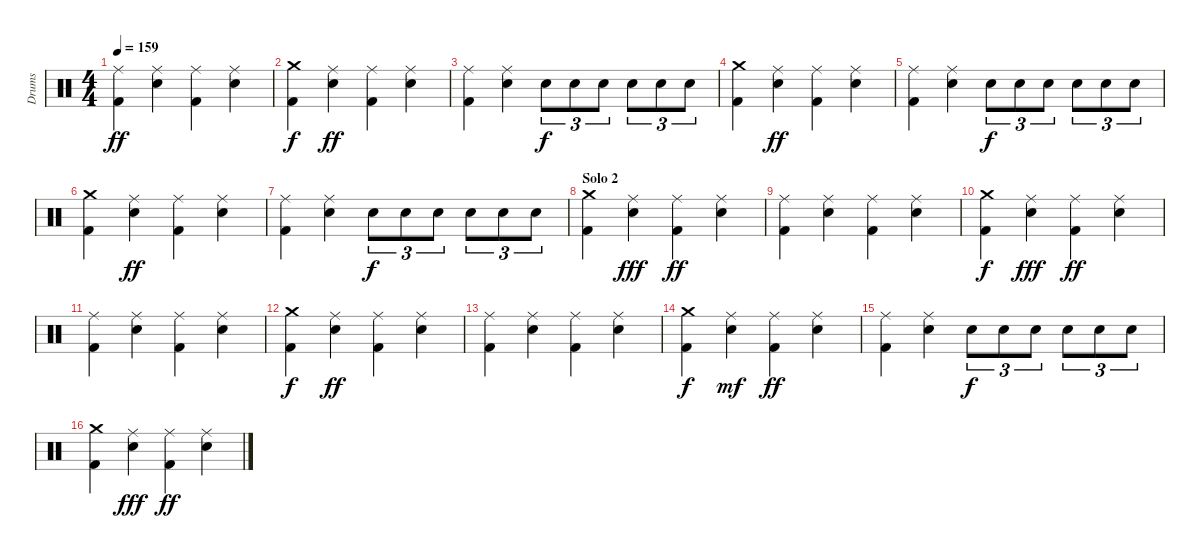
\track ("Drums" "Drums") {instrument percussion}
\staff {score}
\articulation defaults
\ts (4 4)
\tempo 159
\clef neutral
\ks c
("Ride (middle)" "Kick (hit) 2").4{dy ff} ("Ride (middle)" "Snare (hit) 2").4 ("Ride (middle)" "Kick (hit) 2").4 ("Ride (middle)" "Snare (hit) 2").4 |
("Crash medium (hit)" "Kick (hit) 2").4{dy f} ("Ride (middle)" "Snare (hit) 2").4{dy ff} ("Ride (middle)" "Kick (hit) 2").4 ("Ride (middle)" "Snare (hit) 2").4 |
("Ride (middle)" "Kick (hit) 2").4 ("Ride (middle)" "Snare (hit) 2").4 "Snare (hit) 2".8{tu (3 2) dy f} "Snare (hit) 2".8{tu (3 2)} "Snare (hit) 2".8{tu (3 2)} "Snare (hit) 2".8{tu (3 2)} "Snare (hit) 2".8{tu (3 2)} "Snare (hit) 2".8{tu (3 2)} |
("Crash medium (hit)" "Kick (hit) 2").4 ("Ride (middle)" "Snare (hit) 2").4{dy ff} ("Ride (middle)" "Kick (hit) 2").4 ("Ride (middle)" "Snare (hit) 2").4 |
("Ride (middle)" "Kick (hit) 2").4 ("Ride (middle)" "Snare (hit) 2").4 "Snare (hit) 2".8{tu (3 2) dy f} "Snare (hit) 2".8{tu (3 2)} "Snare (hit) 2".8{tu (3 2)} "Snare (hit) 2".8{tu (3 2)} "Snare (hit) 2".8{tu (3 2)} "Snare (hit) 2".8{tu (3 2)} |
("Crash medium (hit)" "Kick (hit) 2").4 ("Ride (middle)" "Snare (hit) 2").4{dy ff} ("Ride (middle)" "Kick (hit) 2").4 ("Ride (middle)" "Snare (hit) 2").4 |
("Ride (middle)" "Kick (hit) 2").4 ("Ride (middle)" "Snare (hit) 2").4 "Snare (hit) 2".8{tu (3 2) dy f} "Snare (hit) 2".8{tu (3 2)} "Snare (hit) 2".8{tu (3 2)} "Snare (hit) 2".8{tu (3 2)} "Snare (hit) 2".8{tu (3 2)} "Snare (hit) 2".8{tu (3 2)} |
\section ("" "Solo 2")
("Crash medium (hit)" "Kick (hit) 2").4 ("Ride (middle)" "Snare (hit) 2").4{dy fff} ("Ride (middle)" "Kick (hit) 2").4{dy ff} ("Ride (middle)" "Snare (hit) 2").4 |
("Ride (middle)" "Kick (hit) 2").4 ("Ride (middle)" "Snare (hit) 2").4 ("Ride (middle)" "Kick (hit) 2").4 ("Ride (middle)" "Snare (hit) 2").4 |
("Crash medium (hit)" "Kick (hit) 2").4{dy f} ("Ride (middle)" "Snare (hit) 2").4{dy fff} ("Ride (middle)" "Kick (hit) 2").4{dy ff} ("Ride (middle)" "Snare (hit) 2").4 |
("Ride (middle)" "Kick (hit) 2").4 ("Ride (middle)" "Snare (hit) 2").4 ("Ride (middle)" "Kick (hit) 2").4 ("Ride (middle)" "Snare (hit) 2").4 |
("Crash medium (hit)" "Kick (hit) 2").4{dy f} ("Ride (middle)" "Snare (hit) 2").4{dy ff} ("Ride (middle)" "Kick (hit) 2").4 ("Ride (middle)" "Snare (hit) 2").4 |
("Ride (middle)" "Kick (hit) 2").4 ("Ride (middle)" "Snare (hit) 2").4 ("Ride (middle)" "Kick (hit) 2").4 ("Ride (middle)" "Snare (hit) 2").4 |
("Crash medium (hit)" "Kick (hit) 2").4{dy f} ("Ride (middle)" "Snare (hit) 2").4{dy mf} ("Ride (middle)" "Kick (hit) 2").4{dy ff} ("Ride (middle)" "Snare (hit) 2").4 |
("Ride (middle)" "Kick (hit) 2").4 ("Ride (middle)" "Snare (hit) 2").4 "Snare (hit) 2".8{tu (3 2) dy f} "Snare (hit) 2".8{tu (3 2)} "Snare (hit) 2".8{tu (3 2)} "Snare (hit) 2".8{tu (3 2)} "Snare (hit) 2".8{tu (3 2)} "Snare (hit) 2".8{tu (3 2)} |
("Crash medium (hit)" "Kick (hit) 2").4 ("Ride (middle)" "Snare (hit) 2").4{dy fff} ("Ride (middle)" "Kick (hit) 2").4{dy ff} ("Ride (middle)" "Snare (hit) 2").4
